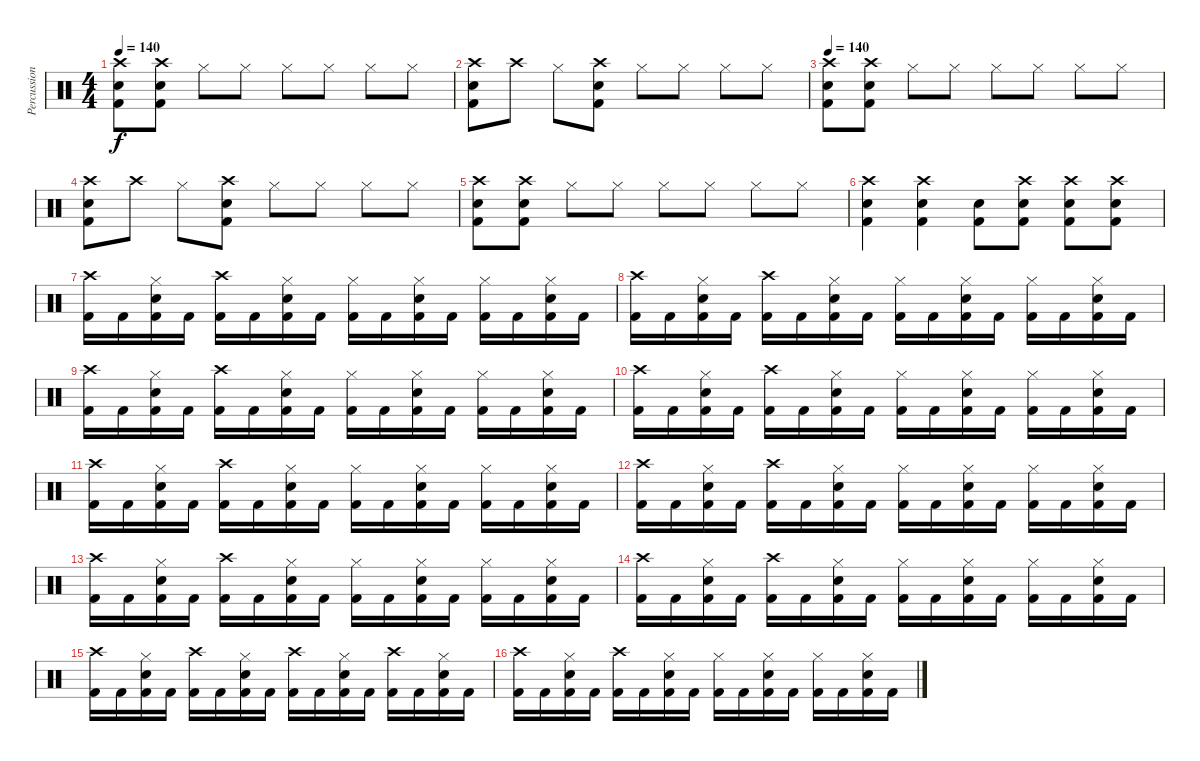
\track ("Percussion" "Percussion") {instrument percussion}
\staff {score}
\articulation defaults
\ts (4 4)
\tempo 140
\clef neutral
\ks aminor
("Crash high (hit)" "Snare (hit) 2" "Kick (hit) 2").8{dy f} ("Crash high (hit)" "Snare (hit) 2" "Kick (hit) 2").8 "Hi-Hat (closed)".8 "Hi-Hat (closed)".8 "Hi-Hat (closed)".8 "Hi-Hat (closed)".8 "Hi-Hat (closed)".8 "Hi-Hat (closed)".8 |
("Crash high (hit)" "Snare (hit) 2" "Kick (hit) 2").8 "Crash high (hit)".8 "Hi-Hat (closed)".8 ("Crash high (hit)" "Snare (hit) 2" "Kick (hit) 2").8 "Hi-Hat (closed)".8 "Hi-Hat (closed)".8 "Hi-Hat (closed)".8 "Hi-Hat (closed)".8 |
\tempo 140
("Crash high (hit)" "Snare (hit) 2" "Kick (hit) 2").8 ("Crash high (hit)" "Snare (hit) 2" "Kick (hit) 2").8 "Hi-Hat (closed)".8 "Hi-Hat (closed)".8 "Hi-Hat (closed)".8 "Hi-Hat (closed)".8 "Hi-Hat (closed)".8 "Hi-Hat (closed)".8 |
("Crash high (hit)" "Snare (hit) 2" "Kick (hit) 2").8 "Crash high (hit)".8 "Hi-Hat (closed)".8 ("Crash high (hit)" "Snare (hit) 2" "Kick (hit) 2").8 "Hi-Hat (closed)".8 "Hi-Hat (closed)".8 "Hi-Hat (closed)".8 "Hi-Hat (closed)".8 |
("Crash high (hit)" "Snare (hit) 2" "Kick (hit) 2").8 ("Crash high (hit)" "Snare (hit) 2" "Kick (hit) 2").8 "Hi-Hat (closed)".8 "Hi-Hat (closed)".8 "Hi-Hat (closed)".8 "Hi-Hat (closed)".8 "Hi-Hat (closed)".8 "Hi-Hat (closed)".8 |
("Crash high (hit)" "Snare (hit) 2" "Kick (hit) 2").4 ("Crash high (hit)" "Snare (hit) 2" "Kick (hit) 2").4 ("Snare (hit) 2" "Kick (hit) 2").8 ("Crash high (hit)" "Snare (hit) 2" "Kick (hit) 2").8 ("Crash high (hit)" "Snare (hit) 2" "Kick (hit) 2").8 ("Crash high (hit)" "Snare (hit) 2" "Kick (hit) 2").8 |
("Crash high (hit)" "Kick (hit) 2").16 "Kick (hit) 2".16 ("Hi-Hat (closed)" "Snare (hit) 2" "Kick (hit) 2").16 "Kick (hit) 2".16 ("Crash high (hit)" "Kick (hit) 2").16 "Kick (hit) 2".16 ("Hi-Hat (closed)" "Snare (hit) 2" "Kick (hit) 2").16 "Kick (hit) 2".16 ("Hi-Hat (closed)" "Kick (hit) 2").16 "Kick (hit) 2".16 ("Hi-Hat (closed)" "Snare (hit) 2" "Kick (hit) 2").16 "Kick (hit) 2".16 ("Hi-Hat (closed)" "Kick (hit) 2").16 "Kick (hit) 2".16 ("Hi-Hat (closed)" "Snare (hit) 2" "Kick (hit) 2").16 "Kick (hit) 2".16 |
("Crash high (hit)" "Kick (hit) 2").16 "Kick (hit) 2".16 ("Hi-Hat (closed)" "Snare (hit) 2" "Kick (hit) 2").16 "Kick (hit) 2".16 ("Crash high (hit)" "Kick (hit) 2").16 "Kick (hit) 2".16 ("Hi-Hat (closed)" "Snare (hit) 2" "Kick (hit) 2").16 "Kick (hit) 2".16 ("Hi-Hat (closed)" "Kick (hit) 2").16 "Kick (hit) 2".16 ("Hi-Hat (closed)" "Snare (hit) 2" "Kick (hit) 2").16 "Kick (hit) 2".16 ("Hi-Hat (closed)" "Kick (hit) 2").16 "Kick (hit) 2".16 ("Hi-Hat (closed)" "Snare (hit) 2" "Kick (hit) 2").16 "Kick (hit) 2".16 |
("Crash high (hit)" "Kick (hit) 2").16 "Kick (hit) 2".16 ("Hi-Hat (closed)" "Snare (hit) 2" "Kick (hit) 2").16 "Kick (hit) 2".16 ("Crash high (hit)" "Kick (hit) 2").16 "Kick (hit) 2".16 ("Hi-Hat (closed)" "Snare (hit) 2" "Kick (hit) 2").16 "Kick (hit) 2".16 ("Hi-Hat (closed)" "Kick (hit) 2").16 "Kick (hit) 2".16 ("Hi-Hat (closed)" "Snare (hit) 2" "Kick (hit) 2").16 "Kick (hit) 2".16 ("Hi-Hat (closed)" "Kick (hit) 2").16 "Kick (hit) 2".16 ("Hi-Hat (closed)" "Snare (hit) 2" "Kick (hit) 2").16 "Kick (hit) 2".16 |
("Crash high (hit)" "Kick (hit) 2").16 "Kick (hit) 2".16 ("Hi-Hat (closed)" "Snare (hit) 2" "Kick (hit) 2").16 "Kick (hit) 2".16 ("Crash high (hit)" "Kick (hit) 2").16 "Kick (hit) 2".16 ("Hi-Hat (closed)" "Snare (hit) 2" "Kick (hit) 2").16 "Kick (hit) 2".16 ("Hi-Hat (closed)" "Kick (hit) 2").16 "Kick (hit) 2".16 ("Hi-Hat (closed)" "Snare (hit) 2" "Kick (hit) 2").16 "Kick (hit) 2".16 ("Hi-Hat (closed)" "Kick (hit) 2").16 "Kick (hit) 2".16 ("Hi-Hat (closed)" "Snare (hit) 2" "Kick (hit) 2").16 "Kick (hit) 2".16 |
("Crash high (hit)" "Kick (hit) 2").16 "Kick (hit) 2".16 ("Hi-Hat (closed)" "Snare (hit) 2" "Kick (hit) 2").16 "Kick (hit) 2".16 ("Crash high (hit)" "Kick (hit) 2").16 "Kick (hit) 2".16 ("Hi-Hat (closed)" "Snare (hit) 2" "Kick (hit) 2").16 "Kick (hit) 2".16 ("Hi-Hat (closed)" "Kick (hit) 2").16 "Kick (hit) 2".16 ("Hi-Hat (closed)" "Snare (hit) 2" "Kick (hit) 2").16 "Kick (hit) 2".16 ("Hi-Hat (closed)" "Kick (hit) 2").16 "Kick (hit) 2".16 ("Hi-Hat (closed)" "Snare (hit) 2" "Kick (hit) 2").16 "Kick (hit) 2".16 |
("Crash high (hit)" "Kick (hit) 2").16 "Kick (hit) 2".16 ("Hi-Hat (closed)" "Snare (hit) 2" "Kick (hit) 2").16 "Kick (hit) 2".16 ("Crash high (hit)" "Kick (hit) 2").16 "Kick (hit) 2".16 ("Hi-Hat (closed)" "Snare (hit) 2" "Kick (hit) 2").16 "Kick (hit) 2".16 ("Hi-Hat (closed)" "Kick (hit) 2").16 "Kick (hit) 2".16 ("Hi-Hat (closed)" "Snare (hit) 2" "Kick (hit) 2").16 "Kick (hit) 2".16 ("Hi-Hat (closed)" "Kick (hit) 2").16 "Kick (hit) 2".16 ("Hi-Hat (closed)" "Snare (hit) 2" "Kick (hit) 2").16 "Kick (hit) 2".16 |
("Crash high (hit)" "Kick (hit) 2").16 "Kick (hit) 2".16 ("Hi-Hat (closed)" "Snare (hit) 2" "Kick (hit) 2").16 "Kick (hit) 2".16 ("Crash high (hit)" "Kick (hit) 2").16 "Kick (hit) 2".16 ("Hi-Hat (closed)" "Snare (hit) 2" "Kick (hit) 2").16 "Kick (hit) 2".16 ("Hi-Hat (closed)" "Kick (hit) 2").16 "Kick (hit) 2".16 ("Hi-Hat (closed)" "Snare (hit) 2" "Kick (hit) 2").16 "Kick (hit) 2".16 ("Hi-Hat (closed)" "Kick (hit) 2").16 "Kick (hit) 2".16 ("Hi-Hat (closed)" "Snare (hit) 2" "Kick (hit) 2").16 "Kick (hit) 2".16 |
("Crash high (hit)" "Kick (hit) 2").16 "Kick (hit) 2".16 ("Hi-Hat (closed)" "Snare (hit) 2" "Kick (hit) 2").16 "Kick (hit) 2".16 ("Crash high (hit)" "Kick (hit) 2").16 "Kick (hit) 2".16 ("Hi-Hat (closed)" "Snare (hit) 2" "Kick (hit) 2").16 "Kick (hit) 2".16 ("Hi-Hat (closed)" "Kick (hit) 2").16 "Kick (hit) 2".16 ("Hi-Hat (closed)" "Snare (hit) 2" "Kick (hit) 2").16 "Kick (hit) 2".16 ("Hi-Hat (closed)" "Kick (hit) 2").16 "Kick (hit) 2".16 ("Hi-Hat (closed)" "Snare (hit) 2" "Kick (hit) 2").16 "Kick (hit) 2".16 |
("Crash high (hit)" "Kick (hit) 2").16 "Kick (hit) 2".16 ("Hi-Hat (closed)" "Snare (hit) 2" "Kick (hit) 2").16 "Kick (hit) 2".16 ("Crash high (hit)" "Kick (hit) 2").16 "Kick (hit) 2".16 ("Hi-Hat (closed)" "Snare (hit) 2" "Kick (hit) 2").16 "Kick (hit) 2".16 ("Crash high (hit)" "Kick (hit) 2").16 "Kick (hit) 2".16 ("Hi-Hat (closed)" "Snare (hit) 2" "Kick (hit) 2").16 "Kick (hit) 2".16 ("Crash high (hit)" "Kick (hit) 2").16 "Kick (hit) 2".16 ("Hi-Hat (closed)" "Snare (hit) 2" "Kick (hit) 2").16 "Kick (hit) 2".16 |
("Crash high (hit)" "Kick (hit) 2").16 "Kick (hit) 2".16 ("Hi-Hat (closed)" "Snare (hit) 2" "Kick (hit) 2").16 "Kick (hit) 2".16 ("Crash high (hit)" "Kick (hit) 2").16 "Kick (hit) 2".16 ("Hi-Hat (closed)" "Snare (hit) 2" "Kick (hit) 2").16 "Kick (hit) 2".16 ("Hi-Hat (closed)" "Kick (hit) 2").16 "Kick (hit) 2".16 ("Hi-Hat (closed)" "Snare (hit) 2" "Kick (hit) 2").16 "Kick (hit) 2".16 ("Hi-Hat (closed)" "Kick (hit) 2").16 "Kick (hit) 2".16 ("Hi-Hat (closed)" "Snare (hit) 2" "Kick (hit) 2").16 "Kick (hit) 2".16
